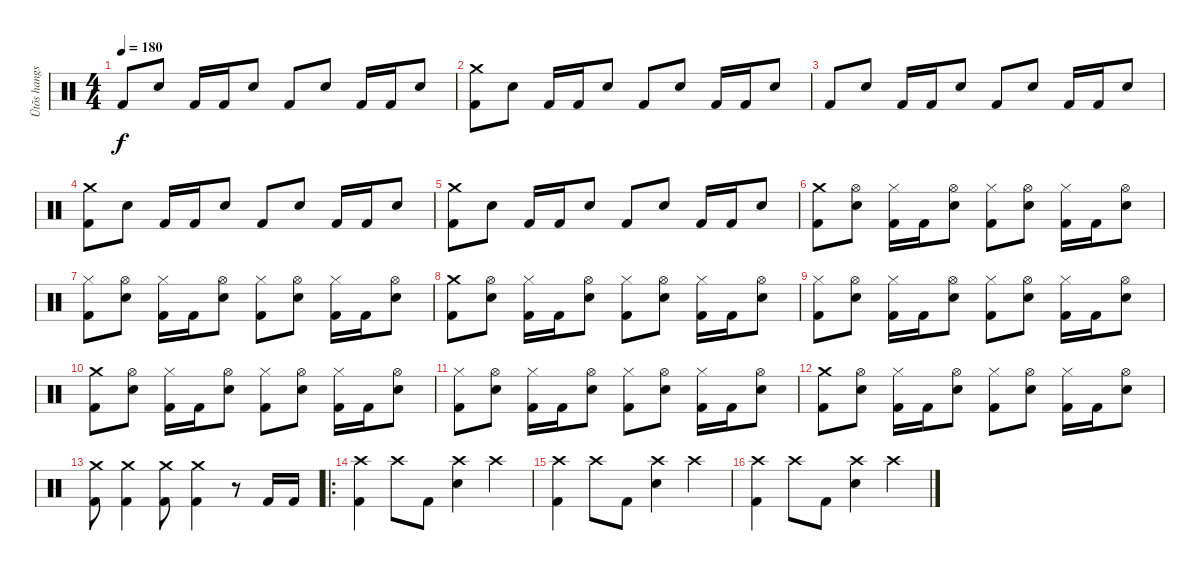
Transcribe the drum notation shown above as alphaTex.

\track ("Ütõs hangszer" "Ütõs hangs") {instrument percussion}
\staff {score}
\articulation defaults
\ts (4 4)
\tempo 180
\clef neutral
\ks c "Kick (hit) 2".8{dy f} "Snare (hit) 2".8 "Kick (hit) 2".16 "Kick (hit) 2".16 "Snare (hit) 2".8 "Kick (hit) 2".8 "Snare (hit) 2".8 "Kick (hit) 2".16 "Kick (hit) 2".16 "Snare (hit) 2".8
|
("Crash medium (hit)" "Kick (hit) 2").8 "Snare (hit) 2".8 "Kick (hit) 2".16 "Kick (hit) 2".16 "Snare (hit) 2".8 "Kick (hit) 2".8 "Snare (hit) 2".8 "Kick (hit) 2".16 "Kick (hit) 2".16 "Snare (hit) 2".8 |
"Kick (hit) 2".8 "Snare (hit) 2".8 "Kick (hit) 2".16 "Kick (hit) 2".16 "Snare (hit) 2".8 "Kick (hit) 2".8 "Snare (hit) 2".8 "Kick (hit) 2".16 "Kick (hit) 2".16 "Snare (hit) 2".8 |
("Crash medium (hit)" "Kick (hit) 2").8 "Snare (hit) 2".8 "Kick (hit) 2".16 "Kick (hit) 2".16 "Snare (hit) 2".8 "Kick (hit) 2".8 "Snare (hit) 2".8 "Kick (hit) 2".16 "Kick (hit) 2".16 "Snare (hit) 2".8 |
("Crash medium (hit)" "Kick (hit) 2").8 "Snare (hit) 2".8 "Kick (hit) 2".16 "Kick (hit) 2".16 "Snare (hit) 2".8 "Kick (hit) 2".8 "Snare (hit) 2".8 "Kick (hit) 2".16 "Kick (hit) 2".16 "Snare (hit) 2".8 |
("Crash medium (hit)" "Kick (hit) 2").8 ("Hi-Hat (open)" "Snare (hit) 2").8 ("Hi-Hat (closed)" "Kick (hit) 2").16 "Kick (hit) 2".16 ("Hi-Hat (open)" "Snare (hit) 2").8 ("Hi-Hat (closed)" "Kick (hit) 2").8 ("Hi-Hat (open)" "Snare (hit) 2").8 ("Hi-Hat (closed)" "Kick (hit) 2").16 "Kick (hit) 2".16 ("Hi-Hat (open)" "Snare (hit) 2").8 |
("Hi-Hat (closed)" "Kick (hit) 2").8 ("Hi-Hat (open)" "Snare (hit) 2").8 ("Hi-Hat (closed)" "Kick (hit) 2").16 "Kick (hit) 2".16 ("Hi-Hat (open)" "Snare (hit) 2").8 ("Hi-Hat (closed)" "Kick (hit) 2").8 ("Hi-Hat (open)" "Snare (hit) 2").8 ("Hi-Hat (closed)" "Kick (hit) 2").16 "Kick (hit) 2".16 ("Hi-Hat (open)" "Snare (hit) 2").8 |
("Crash medium (hit)" "Kick (hit) 2").8 ("Hi-Hat (open)" "Snare (hit) 2").8 ("Hi-Hat (closed)" "Kick (hit) 2").16 "Kick (hit) 2".16 ("Hi-Hat (open)" "Snare (hit) 2").8 ("Hi-Hat (closed)" "Kick (hit) 2").8 ("Hi-Hat (open)" "Snare (hit) 2").8 ("Hi-Hat (closed)" "Kick (hit) 2").16 "Kick (hit) 2".16 ("Hi-Hat (open)" "Snare (hit) 2").8 |
("Hi-Hat (closed)" "Kick (hit) 2").8 ("Hi-Hat (open)" "Snare (hit) 2").8 ("Hi-Hat (closed)" "Kick (hit) 2").16 "Kick (hit) 2".16 ("Hi-Hat (open)" "Snare (hit) 2").8 ("Hi-Hat (closed)" "Kick (hit) 2").8 ("Hi-Hat (open)" "Snare (hit) 2").8 ("Hi-Hat (closed)" "Kick (hit) 2").16 "Kick (hit) 2".16 ("Hi-Hat (open)" "Snare (hit) 2").8 |
("Crash medium (hit)" "Kick (hit) 2").8 ("Hi-Hat (open)" "Snare (hit) 2").8 ("Hi-Hat (closed)" "Kick (hit) 2").16 "Kick (hit) 2".16 ("Hi-Hat (open)" "Snare (hit) 2").8 ("Hi-Hat (closed)" "Kick (hit) 2").8 ("Hi-Hat (open)" "Snare (hit) 2").8 ("Hi-Hat (closed)" "Kick (hit) 2").16 "Kick (hit) 2".16 ("Hi-Hat (open)" "Snare (hit) 2").8 |
("Hi-Hat (closed)" "Kick (hit) 2").8 ("Hi-Hat (open)" "Snare (hit) 2").8 ("Hi-Hat (closed)" "Kick (hit) 2").16 "Kick (hit) 2".16 ("Hi-Hat (open)" "Snare (hit) 2").8 ("Hi-Hat (closed)" "Kick (hit) 2").8 ("Hi-Hat (open)" "Snare (hit) 2").8 ("Hi-Hat (closed)" "Kick (hit) 2").16 "Kick (hit) 2".16 ("Hi-Hat (open)" "Snare (hit) 2").8 |
("Crash medium (hit)" "Kick (hit) 2").8 ("Hi-Hat (open)" "Snare (hit) 2").8 ("Hi-Hat (closed)" "Kick (hit) 2").16 "Kick (hit) 2".16 ("Hi-Hat (open)" "Snare (hit) 2").8 ("Hi-Hat (closed)" "Kick (hit) 2").8 ("Hi-Hat (open)" "Snare (hit) 2").8 ("Hi-Hat (closed)" "Kick (hit) 2").16 "Kick (hit) 2".16 ("Hi-Hat (open)" "Snare (hit) 2").8 |
("Crash medium (hit)" "Kick (hit) 2").8 ("Crash medium (hit)" "Kick (hit) 2").4 ("Crash medium (hit)" "Kick (hit) 2").8 ("Crash medium (hit)" "Kick (hit) 2").4 r.8 "Kick (hit) 2".16 "Kick (hit) 2".16 |
\ro
("Crash high (hit)" "Kick (hit) 2").4 "Crash high (hit)".8 "Kick (hit) 2".8 ("Crash high (hit)" "Snare (hit) 2").4 "Crash high (hit)".4 |
("Crash high (hit)" "Kick (hit) 2").4 "Crash high (hit)".8 "Kick (hit) 2".8 ("Crash high (hit)" "Snare (hit) 2").4 "Crash high (hit)".4 |
("Crash high (hit)" "Kick (hit) 2").4 "Crash high (hit)".8 "Kick (hit) 2".8 ("Crash high (hit)" "Snare (hit) 2").4 "Crash high (hit)".4
